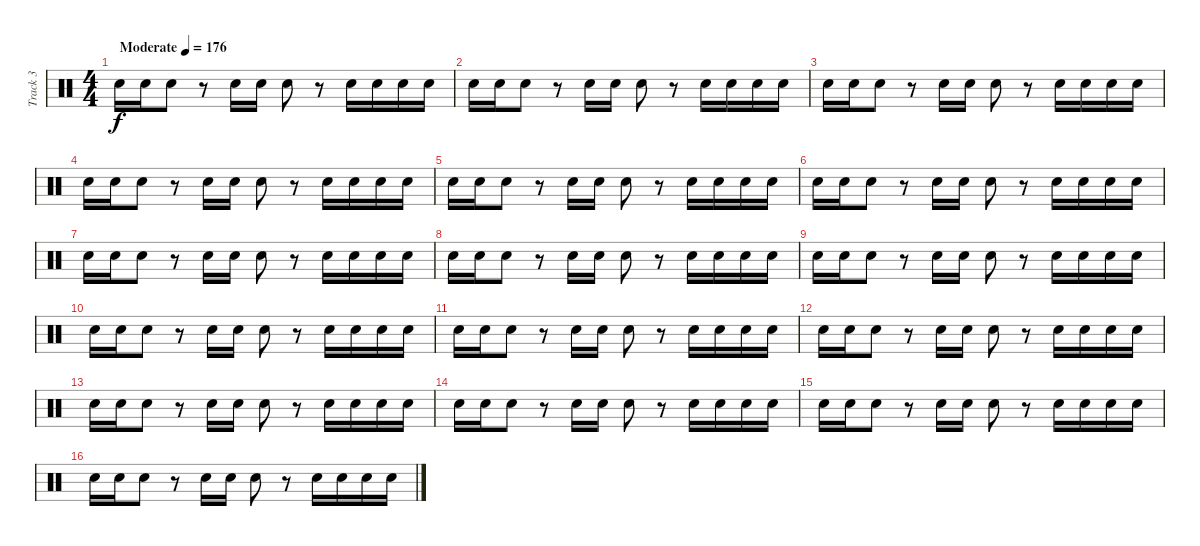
\track ("Track 3" "Track 3") {instrument percussion}
\staff {score}
\articulation defaults
\ts (4 4)
\tempo (176 "Moderate")
\clef neutral
\ks c "Snare (hit) 2".16{dy f} "Snare (hit) 2".16 "Snare (hit) 2".8
r.8 "Snare (hit) 2".16 "Snare (hit) 2".16 "Snare (hit) 2".8 r.8 "Snare (hit) 2".16 "Snare (hit) 2".16 "Snare (hit) 2".16 "Snare (hit) 2".16 |
"Snare (hit) 2".16 "Snare (hit) 2".16 "Snare (hit) 2".8 r.8 "Snare (hit) 2".16 "Snare (hit) 2".16 "Snare (hit) 2".8 r.8 "Snare (hit) 2".16 "Snare (hit) 2".16 "Snare (hit) 2".16 "Snare (hit) 2".16 |
"Snare (hit) 2".16 "Snare (hit) 2".16 "Snare (hit) 2".8 r.8 "Snare (hit) 2".16 "Snare (hit) 2".16 "Snare (hit) 2".8 r.8 "Snare (hit) 2".16 "Snare (hit) 2".16 "Snare (hit) 2".16 "Snare (hit) 2".16 |
"Snare (hit) 2".16 "Snare (hit) 2".16 "Snare (hit) 2".8 r.8 "Snare (hit) 2".16 "Snare (hit) 2".16 "Snare (hit) 2".8 r.8 "Snare (hit) 2".16 "Snare (hit) 2".16 "Snare (hit) 2".16 "Snare (hit) 2".16 |
"Snare (hit) 2".16 "Snare (hit) 2".16 "Snare (hit) 2".8 r.8 "Snare (hit) 2".16 "Snare (hit) 2".16 "Snare (hit) 2".8 r.8 "Snare (hit) 2".16 "Snare (hit) 2".16 "Snare (hit) 2".16 "Snare (hit) 2".16 |
"Snare (hit) 2".16 "Snare (hit) 2".16 "Snare (hit) 2".8 r.8 "Snare (hit) 2".16 "Snare (hit) 2".16 "Snare (hit) 2".8 r.8 "Snare (hit) 2".16 "Snare (hit) 2".16 "Snare (hit) 2".16 "Snare (hit) 2".16 |
"Snare (hit) 2".16 "Snare (hit) 2".16 "Snare (hit) 2".8 r.8 "Snare (hit) 2".16 "Snare (hit) 2".16 "Snare (hit) 2".8 r.8 "Snare (hit) 2".16 "Snare (hit) 2".16 "Snare (hit) 2".16 "Snare (hit) 2".16 |
"Snare (hit) 2".16 "Snare (hit) 2".16 "Snare (hit) 2".8 r.8 "Snare (hit) 2".16 "Snare (hit) 2".16 "Snare (hit) 2".8 r.8 "Snare (hit) 2".16 "Snare (hit) 2".16 "Snare (hit) 2".16 "Snare (hit) 2".16 |
"Snare (hit) 2".16 "Snare (hit) 2".16 "Snare (hit) 2".8 r.8 "Snare (hit) 2".16 "Snare (hit) 2".16 "Snare (hit) 2".8 r.8 "Snare (hit) 2".16 "Snare (hit) 2".16 "Snare (hit) 2".16 "Snare (hit) 2".16 |
"Snare (hit) 2".16 "Snare (hit) 2".16 "Snare (hit) 2".8 r.8 "Snare (hit) 2".16 "Snare (hit) 2".16 "Snare (hit) 2".8 r.8 "Snare (hit) 2".16 "Snare (hit) 2".16 "Snare (hit) 2".16 "Snare (hit) 2".16 |
"Snare (hit) 2".16 "Snare (hit) 2".16 "Snare (hit) 2".8 r.8 "Snare (hit) 2".16 "Snare (hit) 2".16 "Snare (hit) 2".8 r.8 "Snare (hit) 2".16 "Snare (hit) 2".16 "Snare (hit) 2".16 "Snare (hit) 2".16 |
"Snare (hit) 2".16 "Snare (hit) 2".16 "Snare (hit) 2".8 r.8 "Snare (hit) 2".16 "Snare (hit) 2".16 "Snare (hit) 2".8 r.8 "Snare (hit) 2".16 "Snare (hit) 2".16 "Snare (hit) 2".16 "Snare (hit) 2".16 |
"Snare (hit) 2".16 "Snare (hit) 2".16 "Snare (hit) 2".8 r.8 "Snare (hit) 2".16 "Snare (hit) 2".16 "Snare (hit) 2".8 r.8 "Snare (hit) 2".16 "Snare (hit) 2".16 "Snare (hit) 2".16 "Snare (hit) 2".16 |
"Snare (hit) 2".16 "Snare (hit) 2".16 "Snare (hit) 2".8 r.8 "Snare (hit) 2".16 "Snare (hit) 2".16 "Snare (hit) 2".8 r.8 "Snare (hit) 2".16 "Snare (hit) 2".16 "Snare (hit) 2".16 "Snare (hit) 2".16 |
"Snare (hit) 2".16 "Snare (hit) 2".16 "Snare (hit) 2".8 r.8 "Snare (hit) 2".16 "Snare (hit) 2".16 "Snare (hit) 2".8 r.8 "Snare (hit) 2".16 "Snare (hit) 2".16 "Snare (hit) 2".16 "Snare (hit) 2".16 |
"Snare (hit) 2".16 "Snare (hit) 2".16 "Snare (hit) 2".8 r.8 "Snare (hit) 2".16 "Snare (hit) 2".16 "Snare (hit) 2".8 r.8 "Snare (hit) 2".16 "Snare (hit) 2".16 "Snare (hit) 2".16 "Snare (hit) 2".16
